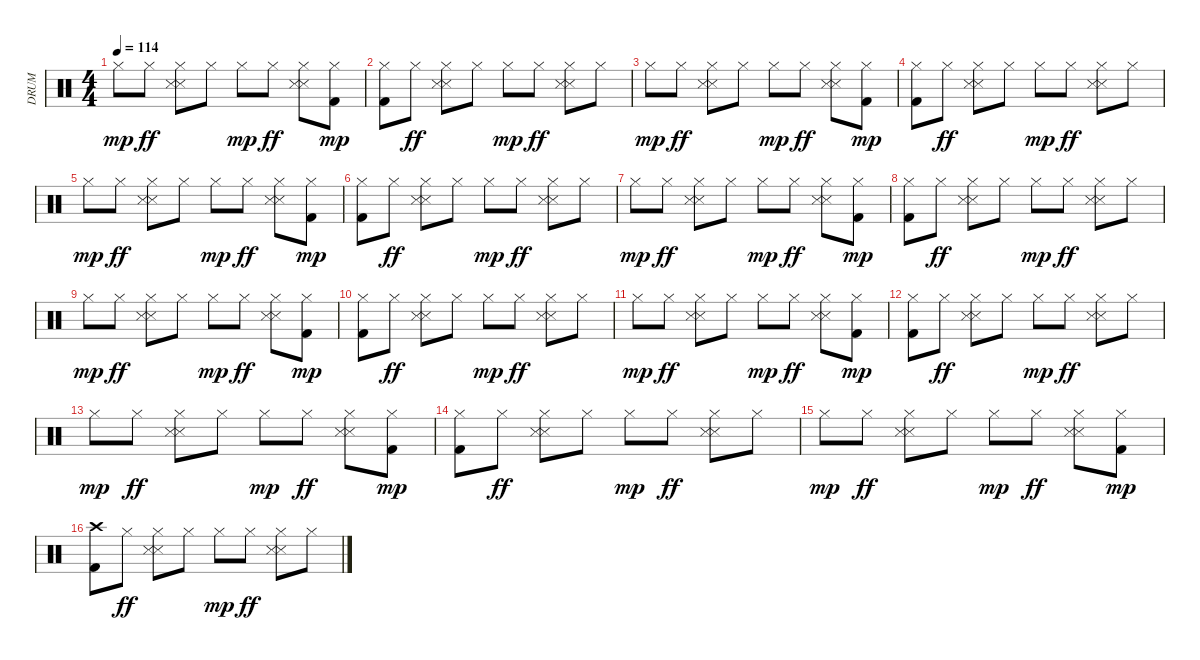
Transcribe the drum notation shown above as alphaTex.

\track ("DRUM" "DRUM") {instrument percussion}
\staff {score}
\articulation defaults
\ts (4 4)
\tempo 114
\clef neutral
\ks c "Hi-Hat (closed)".8{dy mp} "Hi-Hat (closed)".8{dy ff}
("Hi-Hat (closed)" "Snare (side stick) 3" "Snare (side stick) 3").8 "Hi-Hat (closed)".8 "Hi-Hat (closed)".8{dy mp} "Hi-Hat (closed)".8{dy ff} ("Hi-Hat (closed)" "Snare (side stick) 3" "Snare (side stick) 3").8 ("Hi-Hat (closed)" "Kick (hit) 2").8{dy mp} |
("Hi-Hat (closed)" "Kick (hit) 2").8 "Hi-Hat (closed)".8{dy ff} ("Hi-Hat (closed)" "Snare (side stick) 3" "Snare (side stick) 3").8 "Hi-Hat (closed)".8 "Hi-Hat (closed)".8{dy mp} "Hi-Hat (closed)".8{dy ff} ("Hi-Hat (closed)" "Snare (side stick) 3" "Snare (side stick) 3").8 "Hi-Hat (closed)".8 |
"Hi-Hat (closed)".8{dy mp} "Hi-Hat (closed)".8{dy ff} ("Hi-Hat (closed)" "Snare (side stick) 3" "Snare (side stick) 3").8 "Hi-Hat (closed)".8 "Hi-Hat (closed)".8{dy mp} "Hi-Hat (closed)".8{dy ff} ("Hi-Hat (closed)" "Snare (side stick) 3" "Snare (side stick) 3").8 ("Hi-Hat (closed)" "Kick (hit) 2").8{dy mp} |
("Hi-Hat (closed)" "Kick (hit) 2").8 "Hi-Hat (closed)".8{dy ff} ("Hi-Hat (closed)" "Snare (side stick) 3" "Snare (side stick) 3").8 "Hi-Hat (closed)".8 "Hi-Hat (closed)".8{dy mp} "Hi-Hat (closed)".8{dy ff} ("Hi-Hat (closed)" "Snare (side stick) 3" "Snare (side stick) 3").8 "Hi-Hat (closed)".8 |
"Hi-Hat (closed)".8{dy mp} "Hi-Hat (closed)".8{dy ff} ("Hi-Hat (closed)" "Snare (side stick) 3" "Snare (side stick) 3").8 "Hi-Hat (closed)".8 "Hi-Hat (closed)".8{dy mp} "Hi-Hat (closed)".8{dy ff} ("Hi-Hat (closed)" "Snare (side stick) 3" "Snare (side stick) 3").8 ("Hi-Hat (closed)" "Kick (hit) 2").8{dy mp} |
("Hi-Hat (closed)" "Kick (hit) 2").8 "Hi-Hat (closed)".8{dy ff} ("Hi-Hat (closed)" "Snare (side stick) 3" "Snare (side stick) 3").8 "Hi-Hat (closed)".8 "Hi-Hat (closed)".8{dy mp} "Hi-Hat (closed)".8{dy ff} ("Hi-Hat (closed)" "Snare (side stick) 3" "Snare (side stick) 3").8 "Hi-Hat (closed)".8 |
"Hi-Hat (closed)".8{dy mp} "Hi-Hat (closed)".8{dy ff} ("Hi-Hat (closed)" "Snare (side stick) 3" "Snare (side stick) 3").8 "Hi-Hat (closed)".8 "Hi-Hat (closed)".8{dy mp} "Hi-Hat (closed)".8{dy ff} ("Hi-Hat (closed)" "Snare (side stick) 3" "Snare (side stick) 3").8 ("Hi-Hat (closed)" "Kick (hit) 2").8{dy mp} |
("Hi-Hat (closed)" "Kick (hit) 2").8 "Hi-Hat (closed)".8{dy ff} ("Hi-Hat (closed)" "Snare (side stick) 3" "Snare (side stick) 3").8 "Hi-Hat (closed)".8 "Hi-Hat (closed)".8{dy mp} "Hi-Hat (closed)".8{dy ff} ("Hi-Hat (closed)" "Snare (side stick) 3" "Snare (side stick) 3").8 "Hi-Hat (closed)".8 |
"Hi-Hat (closed)".8{dy mp} "Hi-Hat (closed)".8{dy ff} ("Hi-Hat (closed)" "Snare (side stick) 3" "Snare (side stick) 3").8 "Hi-Hat (closed)".8 "Hi-Hat (closed)".8{dy mp} "Hi-Hat (closed)".8{dy ff} ("Hi-Hat (closed)" "Snare (side stick) 3" "Snare (side stick) 3").8 ("Hi-Hat (closed)" "Kick (hit) 2").8{dy mp} |
("Hi-Hat (closed)" "Kick (hit) 2").8 "Hi-Hat (closed)".8{dy ff} ("Hi-Hat (closed)" "Snare (side stick) 3" "Snare (side stick) 3").8 "Hi-Hat (closed)".8 "Hi-Hat (closed)".8{dy mp} "Hi-Hat (closed)".8{dy ff} ("Hi-Hat (closed)" "Snare (side stick) 3" "Snare (side stick) 3").8 "Hi-Hat (closed)".8 |
"Hi-Hat (closed)".8{dy mp} "Hi-Hat (closed)".8{dy ff} ("Hi-Hat (closed)" "Snare (side stick) 3" "Snare (side stick) 3").8 "Hi-Hat (closed)".8 "Hi-Hat (closed)".8{dy mp} "Hi-Hat (closed)".8{dy ff} ("Hi-Hat (closed)" "Snare (side stick) 3" "Snare (side stick) 3").8 ("Hi-Hat (closed)" "Kick (hit) 2").8{dy mp} |
("Hi-Hat (closed)" "Kick (hit) 2").8 "Hi-Hat (closed)".8{dy ff} ("Hi-Hat (closed)" "Snare (side stick) 3" "Snare (side stick) 3").8 "Hi-Hat (closed)".8 "Hi-Hat (closed)".8{dy mp} "Hi-Hat (closed)".8{dy ff} ("Hi-Hat (closed)" "Snare (side stick) 3" "Snare (side stick) 3").8 "Hi-Hat (closed)".8 |
"Hi-Hat (closed)".8{dy mp} "Hi-Hat (closed)".8{dy ff} ("Hi-Hat (closed)" "Snare (side stick) 3" "Snare (side stick) 3").8 "Hi-Hat (closed)".8 "Hi-Hat (closed)".8{dy mp} "Hi-Hat (closed)".8{dy ff} ("Hi-Hat (closed)" "Snare (side stick) 3" "Snare (side stick) 3").8 ("Hi-Hat (closed)" "Kick (hit) 2").8{dy mp} |
("Hi-Hat (closed)" "Kick (hit) 2").8 "Hi-Hat (closed)".8{dy ff} ("Hi-Hat (closed)" "Snare (side stick) 3" "Snare (side stick) 3").8 "Hi-Hat (closed)".8 "Hi-Hat (closed)".8{dy mp} "Hi-Hat (closed)".8{dy ff} ("Hi-Hat (closed)" "Snare (side stick) 3" "Snare (side stick) 3").8 "Hi-Hat (closed)".8 |
"Hi-Hat (closed)".8{dy mp} "Hi-Hat (closed)".8{dy ff} ("Hi-Hat (closed)" "Snare (side stick) 3" "Snare (side stick) 3").8 "Hi-Hat (closed)".8 "Hi-Hat (closed)".8{dy mp} "Hi-Hat (closed)".8{dy ff} ("Hi-Hat (closed)" "Snare (side stick) 3" "Snare (side stick) 3").8 ("Hi-Hat (closed)" "Kick (hit) 2").8{dy mp} |
("Crash high (hit)" "Kick (hit) 2").8 "Hi-Hat (closed)".8{dy ff} ("Hi-Hat (closed)" "Snare (side stick) 3" "Snare (side stick) 3").8 "Hi-Hat (closed)".8 "Hi-Hat (closed)".8{dy mp} "Hi-Hat (closed)".8{dy ff} ("Hi-Hat (closed)" "Snare (side stick) 3" "Snare (side stick) 3").8 "Hi-Hat (closed)".8
